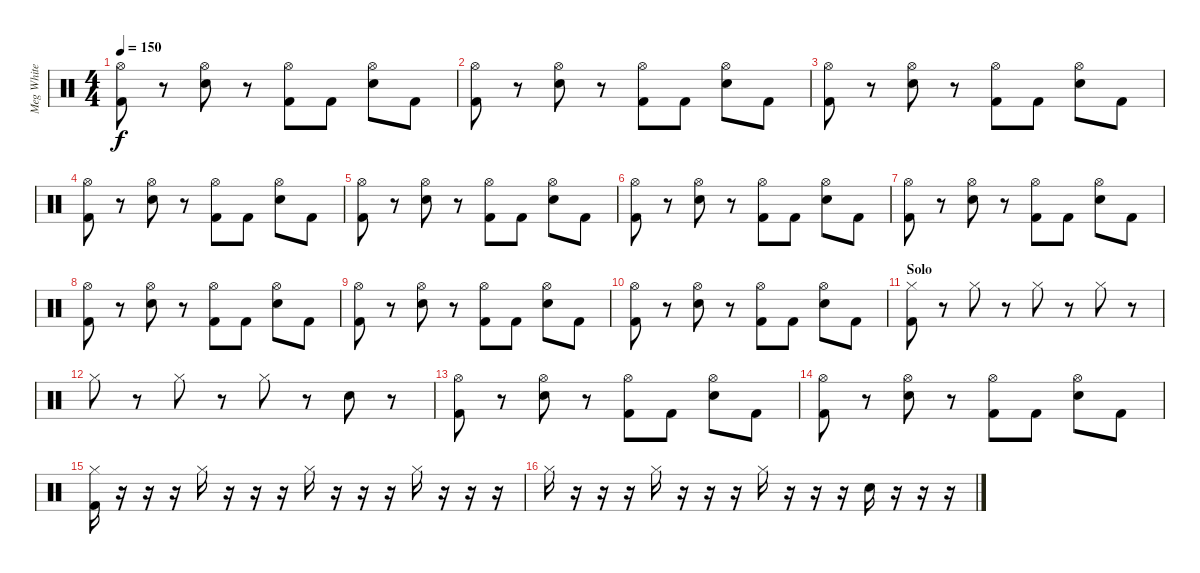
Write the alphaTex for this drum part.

\track ("Meg White - Drums" "Meg White ") {instrument percussion}
\staff {score}
\articulation defaults
\ts (4 4)
\tempo 150
\clef neutral
\ks c
("Hi-Hat (open)" "Kick (hit) 2").8{dy f} r.8 ("Hi-Hat (open)" "Electric Snare (hit)").8 r.8 ("Hi-Hat (open)" "Kick (hit) 2").8 "Kick (hit) 2".8 ("Hi-Hat (open)" "Electric Snare (hit)").8 "Kick (hit) 2".8 |
("Hi-Hat (open)" "Kick (hit) 2").8 r.8 ("Hi-Hat (open)" "Electric Snare (hit)").8 r.8 ("Hi-Hat (open)" "Kick (hit) 2").8 "Kick (hit) 2".8 ("Hi-Hat (open)" "Electric Snare (hit)").8 "Kick (hit) 2".8 |
("Hi-Hat (open)" "Kick (hit) 2").8 r.8 ("Hi-Hat (open)" "Electric Snare (hit)").8 r.8 ("Hi-Hat (open)" "Kick (hit) 2").8 "Kick (hit) 2".8 ("Hi-Hat (open)" "Electric Snare (hit)").8 "Kick (hit) 2".8 |
("Hi-Hat (open)" "Kick (hit) 2").8 r.8 ("Hi-Hat (open)" "Electric Snare (hit)").8 r.8 ("Hi-Hat (open)" "Kick (hit) 2").8 "Kick (hit) 2".8 ("Hi-Hat (open)" "Electric Snare (hit)").8 "Kick (hit) 2".8 |
("Hi-Hat (open)" "Kick (hit) 2").8 r.8 ("Hi-Hat (open)" "Electric Snare (hit)").8 r.8 ("Hi-Hat (open)" "Kick (hit) 2").8 "Kick (hit) 2".8 ("Hi-Hat (open)" "Electric Snare (hit)").8 "Kick (hit) 2".8 |
("Hi-Hat (open)" "Kick (hit) 2").8 r.8 ("Hi-Hat (open)" "Electric Snare (hit)").8 r.8 ("Hi-Hat (open)" "Kick (hit) 2").8 "Kick (hit) 2".8 ("Hi-Hat (open)" "Electric Snare (hit)").8 "Kick (hit) 2".8 |
("Hi-Hat (open)" "Kick (hit) 2").8 r.8 ("Hi-Hat (open)" "Electric Snare (hit)").8 r.8 ("Hi-Hat (open)" "Kick (hit) 2").8 "Kick (hit) 2".8 ("Hi-Hat (open)" "Electric Snare (hit)").8 "Kick (hit) 2".8 |
("Hi-Hat (open)" "Kick (hit) 2").8 r.8 ("Hi-Hat (open)" "Electric Snare (hit)").8 r.8 ("Hi-Hat (open)" "Kick (hit) 2").8 "Kick (hit) 2".8 ("Hi-Hat (open)" "Electric Snare (hit)").8 "Kick (hit) 2".8 |
("Hi-Hat (open)" "Kick (hit) 2").8 r.8 ("Hi-Hat (open)" "Electric Snare (hit)").8 r.8 ("Hi-Hat (open)" "Kick (hit) 2").8 "Kick (hit) 2".8 ("Hi-Hat (open)" "Electric Snare (hit)").8 "Kick (hit) 2".8 |
("Hi-Hat (open)" "Kick (hit) 2").8 r.8 ("Hi-Hat (open)" "Electric Snare (hit)").8 r.8 ("Hi-Hat (open)" "Kick (hit) 2").8 "Kick (hit) 2".8 ("Hi-Hat (open)" "Electric Snare (hit)").8 "Kick (hit) 2".8 |
\section ("" "Solo")
("Hi-Hat (closed)" "Kick (hit) 2").8 r.8 "Hi-Hat (closed)".8 r.8 "Hi-Hat (closed)".8 r.8 "Hi-Hat (closed)".8 r.8 |
"Hi-Hat (closed)".8 r.8 "Hi-Hat (closed)".8 r.8 "Hi-Hat (closed)".8 r.8 "Electric Snare (hit)".8 r.8 |
("Hi-Hat (open)" "Kick (hit) 2").8 r.8 ("Hi-Hat (open)" "Electric Snare (hit)").8 r.8 ("Hi-Hat (open)" "Kick (hit) 2").8 "Kick (hit) 2".8 ("Hi-Hat (open)" "Electric Snare (hit)").8 "Kick (hit) 2".8 |
("Hi-Hat (open)" "Kick (hit) 2").8 r.8 ("Hi-Hat (open)" "Electric Snare (hit)").8 r.8 ("Hi-Hat (open)" "Kick (hit) 2").8 "Kick (hit) 2".8 ("Hi-Hat (open)" "Electric Snare (hit)").8 "Kick (hit) 2".8 |
("Hi-Hat (closed)" "Kick (hit) 2").16 r.16 r.16 r.16 "Hi-Hat (closed)".16 r.16 r.16 r.16 "Hi-Hat (closed)".16 r.16 r.16 r.16 "Hi-Hat (closed)".16 r.16 r.16 r.16 |
"Hi-Hat (closed)".16 r.16 r.16 r.16 "Hi-Hat (closed)".16 r.16 r.16 r.16 "Hi-Hat (closed)".16 r.16 r.16 r.16 "Electric Snare (hit)".16 r.16 r.16 r.16
